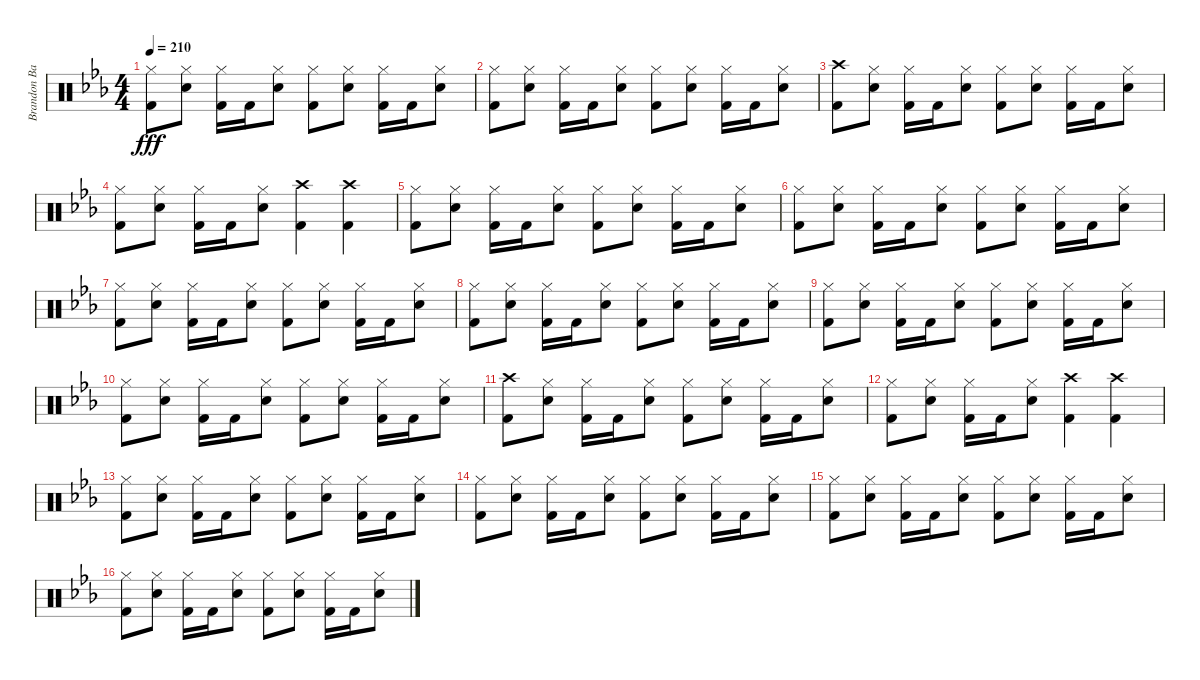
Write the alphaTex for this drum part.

\track ("Brandon Barnes" "Brandon Ba") {instrument percussion}
\staff {score}
\articulation defaults
\ts (4 4)
\tempo 210
\clef neutral
\ks eb
("Hi-Hat (closed)" "Kick (hit) 2").8{dy fff} ("Hi-Hat (closed)" "Snare (hit) 2").8 ("Hi-Hat (closed)" "Kick (hit) 2").16 "Kick (hit) 2".16 ("Hi-Hat (closed)" "Snare (hit) 2").8 ("Hi-Hat (closed)" "Kick (hit) 2").8 ("Hi-Hat (closed)" "Snare (hit) 2").8 ("Hi-Hat (closed)" "Kick (hit) 2").16 "Kick (hit) 2".16 ("Hi-Hat (closed)" "Snare (hit) 2").8 |
("Hi-Hat (closed)" "Kick (hit) 2").8 ("Hi-Hat (closed)" "Snare (hit) 2").8 ("Hi-Hat (closed)" "Kick (hit) 2").16 "Kick (hit) 2".16 ("Hi-Hat (closed)" "Snare (hit) 2").8 ("Hi-Hat (closed)" "Kick (hit) 2").8 ("Hi-Hat (closed)" "Snare (hit) 2").8 ("Hi-Hat (closed)" "Kick (hit) 2").16 "Kick (hit) 2".16 ("Hi-Hat (closed)" "Snare (hit) 2").8 |
("Crash high (hit)" "Kick (hit) 2").8 ("Hi-Hat (closed)" "Snare (hit) 2").8 ("Hi-Hat (closed)" "Kick (hit) 2").16 "Kick (hit) 2".16 ("Hi-Hat (closed)" "Snare (hit) 2").8 ("Hi-Hat (closed)" "Kick (hit) 2").8 ("Hi-Hat (closed)" "Snare (hit) 2").8 ("Hi-Hat (closed)" "Kick (hit) 2").16 "Kick (hit) 2".16 ("Hi-Hat (closed)" "Snare (hit) 2").8 |
("Hi-Hat (closed)" "Kick (hit) 2").8 ("Hi-Hat (closed)" "Snare (hit) 2").8 ("Hi-Hat (closed)" "Kick (hit) 2").16 "Kick (hit) 2".16 ("Hi-Hat (closed)" "Snare (hit) 2").8 ("Kick (hit) 2" "Crash high (hit)").4 ("Kick (hit) 2" "Crash high (hit)").4 |
("Hi-Hat (closed)" "Kick (hit) 2").8 ("Hi-Hat (closed)" "Snare (hit) 2").8 ("Hi-Hat (closed)" "Kick (hit) 2").16 "Kick (hit) 2".16 ("Hi-Hat (closed)" "Snare (hit) 2").8 ("Hi-Hat (closed)" "Kick (hit) 2").8 ("Hi-Hat (closed)" "Snare (hit) 2").8 ("Hi-Hat (closed)" "Kick (hit) 2").16 "Kick (hit) 2".16 ("Hi-Hat (closed)" "Snare (hit) 2").8 |
("Hi-Hat (closed)" "Kick (hit) 2").8 ("Hi-Hat (closed)" "Snare (hit) 2").8 ("Hi-Hat (closed)" "Kick (hit) 2").16 "Kick (hit) 2".16 ("Hi-Hat (closed)" "Snare (hit) 2").8 ("Hi-Hat (closed)" "Kick (hit) 2").8 ("Hi-Hat (closed)" "Snare (hit) 2").8 ("Hi-Hat (closed)" "Kick (hit) 2").16 "Kick (hit) 2".16 ("Hi-Hat (closed)" "Snare (hit) 2").8 |
("Hi-Hat (closed)" "Kick (hit) 2").8 ("Hi-Hat (closed)" "Snare (hit) 2").8 ("Hi-Hat (closed)" "Kick (hit) 2").16 "Kick (hit) 2".16 ("Hi-Hat (closed)" "Snare (hit) 2").8 ("Hi-Hat (closed)" "Kick (hit) 2").8 ("Hi-Hat (closed)" "Snare (hit) 2").8 ("Hi-Hat (closed)" "Kick (hit) 2").16 "Kick (hit) 2".16 ("Hi-Hat (closed)" "Snare (hit) 2").8 |
("Hi-Hat (closed)" "Kick (hit) 2").8 ("Hi-Hat (closed)" "Snare (hit) 2").8 ("Hi-Hat (closed)" "Kick (hit) 2").16 "Kick (hit) 2".16 ("Hi-Hat (closed)" "Snare (hit) 2").8 ("Hi-Hat (closed)" "Kick (hit) 2").8 ("Hi-Hat (closed)" "Snare (hit) 2").8 ("Hi-Hat (closed)" "Kick (hit) 2").16 "Kick (hit) 2".16 ("Hi-Hat (closed)" "Snare (hit) 2").8 |
("Hi-Hat (closed)" "Kick (hit) 2").8 ("Hi-Hat (closed)" "Snare (hit) 2").8 ("Hi-Hat (closed)" "Kick (hit) 2").16 "Kick (hit) 2".16 ("Hi-Hat (closed)" "Snare (hit) 2").8 ("Hi-Hat (closed)" "Kick (hit) 2").8 ("Hi-Hat (closed)" "Snare (hit) 2").8 ("Hi-Hat (closed)" "Kick (hit) 2").16 "Kick (hit) 2".16 ("Hi-Hat (closed)" "Snare (hit) 2").8 |
("Hi-Hat (closed)" "Kick (hit) 2").8 ("Hi-Hat (closed)" "Snare (hit) 2").8 ("Hi-Hat (closed)" "Kick (hit) 2").16 "Kick (hit) 2".16 ("Hi-Hat (closed)" "Snare (hit) 2").8 ("Hi-Hat (closed)" "Kick (hit) 2").8 ("Hi-Hat (closed)" "Snare (hit) 2").8 ("Hi-Hat (closed)" "Kick (hit) 2").16 "Kick (hit) 2".16 ("Hi-Hat (closed)" "Snare (hit) 2").8 |
("Crash high (hit)" "Kick (hit) 2").8 ("Hi-Hat (closed)" "Snare (hit) 2").8 ("Hi-Hat (closed)" "Kick (hit) 2").16 "Kick (hit) 2".16 ("Hi-Hat (closed)" "Snare (hit) 2").8 ("Hi-Hat (closed)" "Kick (hit) 2").8 ("Hi-Hat (closed)" "Snare (hit) 2").8 ("Hi-Hat (closed)" "Kick (hit) 2").16 "Kick (hit) 2".16 ("Hi-Hat (closed)" "Snare (hit) 2").8 |
("Hi-Hat (closed)" "Kick (hit) 2").8 ("Hi-Hat (closed)" "Snare (hit) 2").8 ("Hi-Hat (closed)" "Kick (hit) 2").16 "Kick (hit) 2".16 ("Hi-Hat (closed)" "Snare (hit) 2").8 ("Kick (hit) 2" "Crash high (hit)").4 ("Kick (hit) 2" "Crash high (hit)").4 |
("Hi-Hat (closed)" "Kick (hit) 2").8 ("Hi-Hat (closed)" "Snare (hit) 2").8 ("Hi-Hat (closed)" "Kick (hit) 2").16 "Kick (hit) 2".16 ("Hi-Hat (closed)" "Snare (hit) 2").8 ("Hi-Hat (closed)" "Kick (hit) 2").8 ("Hi-Hat (closed)" "Snare (hit) 2").8 ("Hi-Hat (closed)" "Kick (hit) 2").16 "Kick (hit) 2".16 ("Hi-Hat (closed)" "Snare (hit) 2").8 |
("Hi-Hat (closed)" "Kick (hit) 2").8 ("Hi-Hat (closed)" "Snare (hit) 2").8 ("Hi-Hat (closed)" "Kick (hit) 2").16 "Kick (hit) 2".16 ("Hi-Hat (closed)" "Snare (hit) 2").8 ("Hi-Hat (closed)" "Kick (hit) 2").8 ("Hi-Hat (closed)" "Snare (hit) 2").8 ("Hi-Hat (closed)" "Kick (hit) 2").16 "Kick (hit) 2".16 ("Hi-Hat (closed)" "Snare (hit) 2").8 |
("Hi-Hat (closed)" "Kick (hit) 2").8 ("Hi-Hat (closed)" "Snare (hit) 2").8 ("Hi-Hat (closed)" "Kick (hit) 2").16 "Kick (hit) 2".16 ("Hi-Hat (closed)" "Snare (hit) 2").8 ("Hi-Hat (closed)" "Kick (hit) 2").8 ("Hi-Hat (closed)" "Snare (hit) 2").8 ("Hi-Hat (closed)" "Kick (hit) 2").16 "Kick (hit) 2".16 ("Hi-Hat (closed)" "Snare (hit) 2").8 |
("Hi-Hat (closed)" "Kick (hit) 2").8 ("Hi-Hat (closed)" "Snare (hit) 2").8 ("Hi-Hat (closed)" "Kick (hit) 2").16 "Kick (hit) 2".16 ("Hi-Hat (closed)" "Snare (hit) 2").8 ("Hi-Hat (closed)" "Kick (hit) 2").8 ("Hi-Hat (closed)" "Snare (hit) 2").8 ("Hi-Hat (closed)" "Kick (hit) 2").16 "Kick (hit) 2".16 ("Hi-Hat (closed)" "Snare (hit) 2").8
